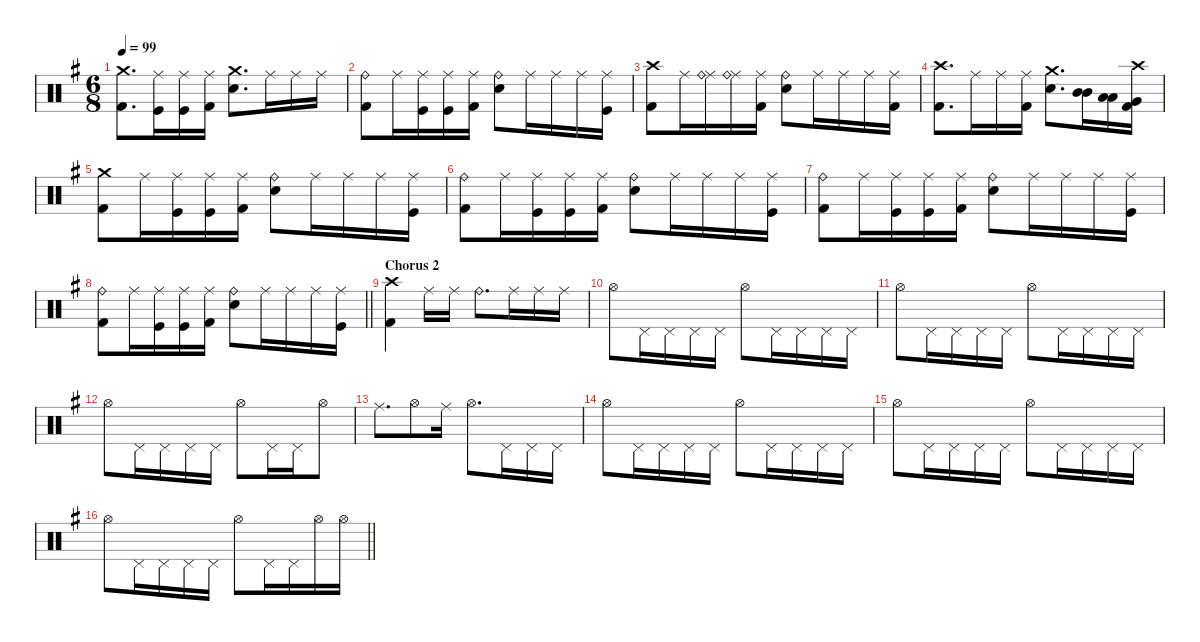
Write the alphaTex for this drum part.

\defaultSystemsLayout 4
\hideDynamics
\bracketExtendMode nobrackets
\singleTrackTrackNamePolicy hidden
\multiTrackTrackNamePolicy hidden
\otherSystemsTrackNameOrientation horizontal
\track ("Dave Abbruzzese" "drm.") {defaultSystemsLayout 4 instrument percussion}
\staff {score}
\articulation defaults
\ts (6 8)
\tempo 99
\clef neutral
\ks g
("Crash medium (hit)"{acc forcenatural} "Kick (hit) 2"{acc forcenatural}).8{d dy f beam Down} ("Ride (middle)"{acc forcenatural} "Kick (hit)"{acc forcenatural}).16{dy p beam Down} ("Ride (middle)"{acc forcenatural} "Kick (hit)"{acc forcenatural}).16{beam Down} ("Ride (middle)"{acc forcenatural} "Kick (hit) 2"{acc forcenatural}).16{beam Down} ("Crash medium (hit)"{acc forcenatural} "Snare (hit) 2"{acc forcenatural}).8{d dy f beam Down} "Ride (middle)"{acc forcenatural}.16{dy p beam Down} "Ride (middle)"{acc forcenatural}.16{beam Down} "Ride (middle)"{acc forcenatural}.16{dy f beam Down} |
("Ride (bell)"{acc forcenatural} "Kick (hit) 2"{acc forcenatural}).8{beam Down} "Ride (middle)"{acc forcenatural}.16{dy p beam Down} ("Ride (middle)"{acc forcenatural} "Kick (hit)"{acc forcenatural}).16{beam Down} ("Ride (middle)"{acc forcenatural} "Kick (hit)"{acc forcenatural}).16{beam Down} ("Ride (middle)"{acc forcenatural} "Kick (hit) 2"{acc forcenatural}).16{beam Down} ("Ride (bell)"{acc forcenatural} "Snare (hit) 2"{acc forcenatural}).8{dy f beam Down} "Ride (middle)"{acc forcenatural}.16{dy p beam Down} "Ride (middle)"{acc forcenatural}.16{beam Down} "Ride (middle)"{acc forcenatural}.16{beam Down} ("Ride (middle)"{acc forcenatural} "Kick (hit)"{acc forcenatural}).16{beam Down} |
("Crash high (hit)"{acc forcenatural} "Kick (hit) 2"{acc forcenatural}).8{dy f beam Down} "Ride (middle)"{acc forcenatural}.16{dy p beam Down} ("Ride (middle)"{acc forcenatural} "Ride (bell)"{acc forcenatural}).16{beam Down} ("Ride (middle)"{acc forcenatural} "Ride (bell)"{acc forcenatural}).16{beam Down} ("Ride (middle)"{acc forcenatural} "Kick (hit) 2"{acc forcenatural}).16{beam Down} ("Ride (bell)"{acc forcenatural} "Snare (hit) 2"{acc forcenatural}).8{dy f beam Down} "Ride (middle)"{acc forcenatural}.16{dy p beam Down} "Ride (middle)"{acc forcenatural}.16{beam Down} "Ride (middle)"{acc forcenatural}.16{beam Down} ("Ride (middle)"{acc forcenatural} "Kick (hit) 2"{acc forcenatural}).16{beam Down} |
("Crash high (hit)"{acc forcenatural} "Kick (hit) 2"{acc forcenatural}).8{d dy f beam Down} "Ride (middle)"{acc forcenatural}.16{dy p beam Down} "Ride (middle)"{acc forcenatural}.16{beam Down} ("Ride (middle)"{acc forcenatural} "Kick (hit) 2"{acc forcenatural}).16{beam Down} ("Crash medium (hit)"{acc forcenatural} "Snare (hit) 2"{acc forcenatural}).8{d dy f beam Down} ("Mid Tom (hit)"{acc forcenatural} "Mid Tom (hit)"{acc forcenatural}).16{beam Down} ("Low Tom (hit)"{acc forcenatural} "Low Tom (hit)"{acc forcenatural}).16{beam Down} ("Crash high (hit)"{acc forcenatural} "Very Low Tom (hit)"{acc forcenatural} "Kick (hit) 2"{acc forcenatural}).16{beam Down} |
("Crash medium (hit)"{acc forcenatural} "Kick (hit) 2"{acc forcenatural}).8{beam Down} "Ride (middle)"{acc forcenatural}.16{dy p beam Down} ("Ride (middle)"{acc forcenatural} "Kick (hit)"{acc forcenatural}).16{beam Down} ("Ride (middle)"{acc forcenatural} "Kick (hit)"{acc forcenatural}).16{beam Down} ("Ride (middle)"{acc forcenatural} "Kick (hit) 2"{acc forcenatural}).16{beam Down} ("Ride (bell)"{acc forcenatural} "Snare (hit) 2"{acc forcenatural}).8{dy f beam Down} "Ride (middle)"{acc forcenatural}.16{dy p beam Down} "Ride (middle)"{acc forcenatural}.16{beam Down} "Ride (middle)"{acc forcenatural}.16{beam Down} ("Ride (middle)"{acc forcenatural} "Kick (hit)"{acc forcenatural}).16{beam Down} |
("Ride (bell)"{acc forcenatural} "Kick (hit) 2"{acc forcenatural}).8{dy f beam Down} "Ride (middle)"{acc forcenatural}.16{dy p beam Down} ("Ride (middle)"{acc forcenatural} "Kick (hit)"{acc forcenatural}).16{beam Down} ("Ride (middle)"{acc forcenatural} "Kick (hit)"{acc forcenatural}).16{beam Down} ("Ride (middle)"{acc forcenatural} "Kick (hit) 2"{acc forcenatural}).16{beam Down} ("Ride (bell)"{acc forcenatural} "Snare (hit) 2"{acc forcenatural}).8{dy f beam Down} "Ride (middle)"{acc forcenatural}.16{dy p beam Down} "Ride (middle)"{acc forcenatural}.16{beam Down} "Ride (middle)"{acc forcenatural}.16{beam Down} ("Ride (middle)"{acc forcenatural} "Kick (hit)"{acc forcenatural}).16{beam Down} |
("Ride (bell)"{acc forcenatural} "Kick (hit) 2"{acc forcenatural}).8{dy f beam Down} "Ride (middle)"{acc forcenatural}.16{dy p beam Down} ("Ride (middle)"{acc forcenatural} "Kick (hit)"{acc forcenatural}).16{beam Down} ("Ride (middle)"{acc forcenatural} "Kick (hit)"{acc forcenatural}).16{beam Down} ("Ride (middle)"{acc forcenatural} "Kick (hit) 2"{acc forcenatural}).16{beam Down} ("Ride (bell)"{acc forcenatural} "Snare (hit) 2"{acc forcenatural}).8{dy f beam Down} "Ride (middle)"{acc forcenatural}.16{dy p beam Down} "Ride (middle)"{acc forcenatural}.16{beam Down} "Ride (middle)"{acc forcenatural}.16{beam Down} ("Ride (middle)"{acc forcenatural} "Kick (hit)"{acc forcenatural}).16{beam Down} |
\barLineRight lightlight
("Ride (bell)"{acc forcenatural} "Kick (hit) 2"{acc forcenatural}).8{dy f beam Down} "Ride (middle)"{acc forcenatural}.16{dy p beam Down} ("Ride (middle)"{acc forcenatural} "Kick (hit)"{acc forcenatural}).16{beam Down} ("Ride (middle)"{acc forcenatural} "Kick (hit)"{acc forcenatural}).16{beam Down} ("Ride (middle)"{acc forcenatural} "Kick (hit) 2"{acc forcenatural}).16{beam Down} ("Ride (bell)"{acc forcenatural} "Snare (hit) 2"{acc forcenatural}).8{dy f beam Down} "Ride (middle)"{acc forcenatural}.16{dy p beam Down} "Ride (middle)"{acc forcenatural}.16{beam Down} "Ride (middle)"{acc forcenatural}.16{beam Down} ("Ride (middle)"{acc forcenatural} "Kick (hit)"{acc forcenatural}).16{beam Down} |
\section ("" "Chorus 2")
("Crash high (hit)"{acc forcenatural} "Kick (hit) 2"{acc forcenatural}).4{dy f beam Down} "Ride (middle)"{acc forcenatural}.16{dy mp beam Down} "Ride (middle)"{acc forcenatural}.16{beam Down} "Ride (bell)"{acc forcenatural}.8{d beam Down} "Ride (middle)"{acc forcenatural}.16{beam Down} "Ride (middle)"{acc forcenatural}.16{dy p beam Down} "Ride (middle)"{acc forcenatural}.16{beam Down} |
"Hi-Hat (open)"{acc forcenatural}.8{beam Down} "Pedal Hi-Hat (hit)"{acc forcenatural}.16{dy pp beam Down} "Pedal Hi-Hat (hit)"{acc forcenatural}.16{beam Down} "Pedal Hi-Hat (hit)"{acc forcenatural}.16{beam Down} "Pedal Hi-Hat (hit)"{acc forcenatural}.16{beam Down} "Hi-Hat (open)"{acc forcenatural}.8{dy p beam Down} "Pedal Hi-Hat (hit)"{acc forcenatural}.16{dy pp beam Down} "Pedal Hi-Hat (hit)"{acc forcenatural}.16{beam Down} "Pedal Hi-Hat (hit)"{acc forcenatural}.16{beam Down} "Pedal Hi-Hat (hit)"{acc forcenatural}.16{beam Down} |
"Hi-Hat (open)"{acc forcenatural}.8{dy p beam Down} "Pedal Hi-Hat (hit)"{acc forcenatural}.16{dy pp beam Down} "Pedal Hi-Hat (hit)"{acc forcenatural}.16{beam Down} "Pedal Hi-Hat (hit)"{acc forcenatural}.16{beam Down} "Pedal Hi-Hat (hit)"{acc forcenatural}.16{beam Down} "Hi-Hat (open)"{acc forcenatural}.8{dy p beam Down} "Pedal Hi-Hat (hit)"{acc forcenatural}.16{dy pp beam Down} "Pedal Hi-Hat (hit)"{acc forcenatural}.16{beam Down} "Pedal Hi-Hat (hit)"{acc forcenatural}.16{beam Down} "Pedal Hi-Hat (hit)"{acc forcenatural}.16{beam Down} |
"Hi-Hat (open)"{acc forcenatural}.8{dy p beam Down} "Pedal Hi-Hat (hit)"{acc forcenatural}.16{dy pp beam Down} "Pedal Hi-Hat (hit)"{acc forcenatural}.16{beam Down} "Pedal Hi-Hat (hit)"{acc forcenatural}.16{beam Down} "Pedal Hi-Hat (hit)"{acc forcenatural}.16{beam Down} "Hi-Hat (open)"{acc forcenatural}.8{dy p beam Down} "Pedal Hi-Hat (hit)"{acc forcenatural}.16{dy pp beam Down} "Pedal Hi-Hat (hit)"{acc forcenatural}.16{beam Down} "Hi-Hat (open)"{acc forcenatural}.8{dy p beam Down} |
"Ride (middle)"{acc forcenatural}.8{d beam Down} "Hi-Hat (open)"{acc forcenatural}.8{beam Down} "Ride (middle)"{acc forcenatural}.16{dy mp beam Down} "Hi-Hat (open)"{acc forcenatural}.8{d dy pp beam Down} "Pedal Hi-Hat (hit)"{acc forcenatural}.16{beam Down} "Pedal Hi-Hat (hit)"{acc forcenatural}.16{beam Down} "Pedal Hi-Hat (hit)"{acc forcenatural}.16{beam Down} |
"Hi-Hat (open)"{acc forcenatural}.8{dy p beam Down} "Pedal Hi-Hat (hit)"{acc forcenatural}.16{dy pp beam Down} "Pedal Hi-Hat (hit)"{acc forcenatural}.16{beam Down} "Pedal Hi-Hat (hit)"{acc forcenatural}.16{beam Down} "Pedal Hi-Hat (hit)"{acc forcenatural}.16{beam Down} "Hi-Hat (open)"{acc forcenatural}.8{dy p beam Down} "Pedal Hi-Hat (hit)"{acc forcenatural}.16{dy pp beam Down} "Pedal Hi-Hat (hit)"{acc forcenatural}.16{beam Down} "Pedal Hi-Hat (hit)"{acc forcenatural}.16{beam Down} "Pedal Hi-Hat (hit)"{acc forcenatural}.16{beam Down} |
"Hi-Hat (open)"{acc forcenatural}.8{dy p beam Down} "Pedal Hi-Hat (hit)"{acc forcenatural}.16{dy pp beam Down} "Pedal Hi-Hat (hit)"{acc forcenatural}.16{beam Down} "Pedal Hi-Hat (hit)"{acc forcenatural}.16{beam Down} "Pedal Hi-Hat (hit)"{acc forcenatural}.16{beam Down} "Hi-Hat (open)"{acc forcenatural}.8{dy p beam Down} "Pedal Hi-Hat (hit)"{acc forcenatural}.16{dy pp beam Down} "Pedal Hi-Hat (hit)"{acc forcenatural}.16{beam Down} "Pedal Hi-Hat (hit)"{acc forcenatural}.16{beam Down} "Pedal Hi-Hat (hit)"{acc forcenatural}.16{beam Down} |
\barLineRight lightlight "Hi-Hat (open)"{acc forcenatural}.8{dy p beam Down} "Pedal Hi-Hat (hit)"{acc forcenatural}.16{dy pp beam Down} "Pedal Hi-Hat (hit)"{acc forcenatural}.16{beam Down} "Pedal Hi-Hat (hit)"{acc forcenatural}.16{beam Down} "Pedal Hi-Hat (hit)"{acc forcenatural}.16{beam Down} "Hi-Hat (open)"{acc forcenatural}.8{dy p beam Down} "Pedal Hi-Hat (hit)"{acc forcenatural}.16{dy pp beam Down} "Pedal Hi-Hat (hit)"{acc forcenatural}.16{beam Down} "Hi-Hat (open)"{acc forcenatural}.16{dy f beam Down} "Hi-Hat (open)"{acc forcenatural}.16{beam Down}
